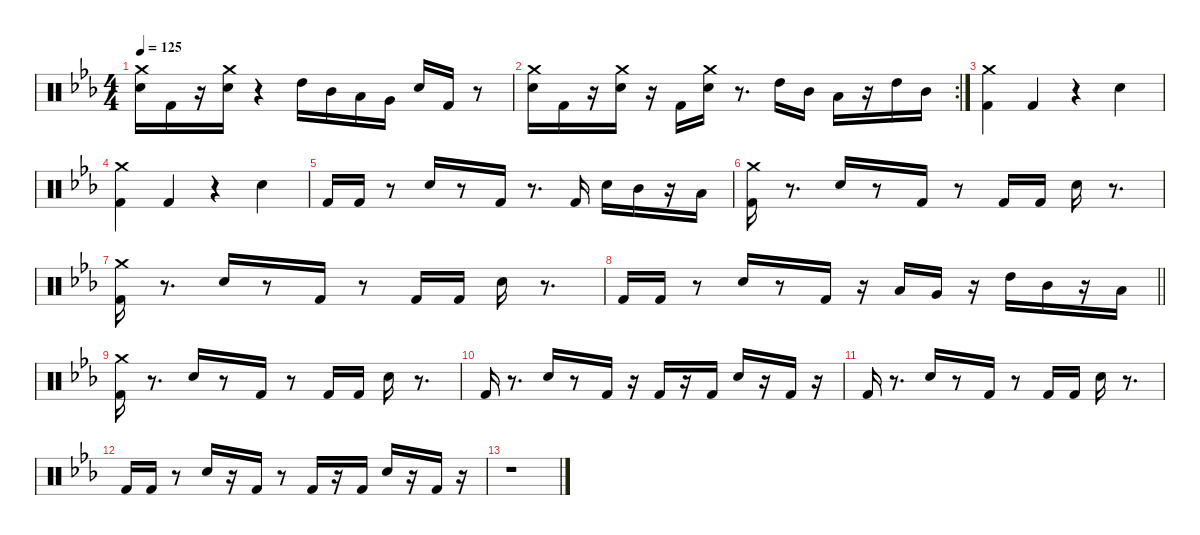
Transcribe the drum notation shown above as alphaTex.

\defaultSystemsLayout 4
\hideDynamics
\bracketExtendMode nobrackets
\singleTrackTrackNamePolicy hidden
\multiTrackTrackNamePolicy hidden
\firstSystemTrackNameMode fullname
\firstSystemTrackNameOrientation horizontal
\otherSystemsTrackNameOrientation horizontal
\track ("Batterie" "drm.") {instrument percussion}
\staff {score}
\articulation defaults
\ts (4 4)
\tempo 125
\clef neutral
\ks eb
("Crash medium (hit)"{acc forcenatural} "Snare (hit) 2"{acc forcenatural}).16{dy f beam Down} "Kick (hit) 2"{acc forcenatural}.16{beam Down} r.16{beam Down} ("Crash medium (hit)"{acc forcenatural} "Snare (hit) 2"{acc forcenatural}).16{beam Down} r.4{beam Down} "High Tom (hit)"{acc forcenatural}.16{beam Down} "Mid Tom (hit)"{acc forcenatural}.16{beam Down} "Low Tom (hit)"{acc forcenatural}.16{beam Down} "Very Low Tom (hit)"{acc forcenatural}.16{beam Down} "Snare (hit) 2"{acc forcenatural}.16{beam Up} "Kick (hit) 2"{acc forcenatural}.16{beam Up} r.8{beam Up} |
\rc 2
("Crash medium (hit)"{acc forcenatural} "Snare (hit) 2"{acc forcenatural}).16{beam Down} "Kick (hit) 2"{acc forcenatural}.16{beam Down} r.16{beam Down} ("Crash medium (hit)"{acc forcenatural} "Snare (hit) 2"{acc forcenatural}).16{beam Down} r.16{beam Down} "Kick (hit) 2"{acc forcenatural}.16{beam Down} ("Crash medium (hit)"{acc forcenatural} "Snare (hit) 2"{acc forcenatural}).16{beam Down} r.8{d beam Down} "High Tom (hit)"{acc forcenatural}.16{beam Down} "Mid Tom (hit)"{acc forcenatural}.16{beam Down} "Low Tom (hit)"{acc forcenatural}.16{beam Down} r.16{beam Down} "High Tom (hit)"{acc forcenatural}.16{beam Down} "Mid Tom (hit)"{acc forcenatural}.16{beam Down} |
("Crash medium (hit)"{acc forcenatural} "Kick (hit) 2"{acc forcenatural}).4{beam Down} "Kick (hit) 2"{acc forcenatural}.4{beam Up} r.4{beam Up} "Snare (hit) 2"{acc forcenatural}.4{beam Down} |
("Crash medium (hit)"{acc forcenatural} "Kick (hit) 2"{acc forcenatural}).4{beam Down} "Kick (hit) 2"{acc forcenatural}.4{beam Up} r.4{beam Up} "Snare (hit) 2"{acc forcenatural}.4{beam Down} |
"Kick (hit) 2"{acc forcenatural}.16{beam Up} "Kick (hit) 2"{acc forcenatural}.16{beam Up} r.8{beam Up} "Snare (hit) 2"{acc forcenatural}.16{beam Up} r.8{beam Up} "Kick (hit) 2"{acc forcenatural}.16{beam Up} r.8{d beam Up} "Kick (hit) 2"{acc forcenatural}.16{beam Up} "Snare (hit) 2"{acc forcenatural}.16{beam Down} "Mid Tom (hit)"{acc forcenatural}.16{beam Down} r.16{beam Down} "Low Tom (hit)"{acc forcenatural}.16{beam Down} |
("Crash medium (hit)"{acc forcenatural} "Kick (hit) 2"{acc forcenatural}).16{beam Down} r.8{d beam Down} "Snare (hit) 2"{acc forcenatural}.16{beam Up} r.8{beam Up} "Kick (hit) 2"{acc forcenatural}.16{beam Up} r.8{beam Up} "Kick (hit) 2"{acc forcenatural}.16{beam Up} "Kick (hit) 2"{acc forcenatural}.16{beam Up} "Snare (hit) 2"{acc forcenatural}.16{beam Down} r.8{d beam Down} |
("Crash medium (hit)"{acc forcenatural} "Kick (hit) 2"{acc forcenatural}).16{beam Down} r.8{d beam Down} "Snare (hit) 2"{acc forcenatural}.16{beam Up} r.8{beam Up} "Kick (hit) 2"{acc forcenatural}.16{beam Up} r.8{beam Up} "Kick (hit) 2"{acc forcenatural}.16{beam Up} "Kick (hit) 2"{acc forcenatural}.16{beam Up} "Snare (hit) 2"{acc forcenatural}.16{beam Down} r.8{d beam Down} |
\barLineRight lightlight "Kick (hit) 2"{acc forcenatural}.16{beam Up} "Kick (hit) 2"{acc forcenatural}.16{beam Up}
r.8{beam Up} "Snare (hit) 2"{acc forcenatural}.16{beam Up} r.8{beam Up} "Kick (hit) 2"{acc forcenatural}.16{beam Up} r.16{beam Up} "Low Tom (hit)"{acc forcenatural}.16{beam Up} "Very Low Tom (hit)"{acc forcenatural}.16{beam Up} r.16{beam Up} "High Tom (hit)"{acc forcenatural}.16{beam Down} "Mid Tom (hit)"{acc forcenatural}.16{beam Down} r.16{beam Down} "Low Tom (hit)"{acc forcenatural}.16{beam Down} |
("Crash medium (hit)"{acc forcenatural} "Kick (hit) 2"{acc forcenatural}).16{beam Down} r.8{d beam Down} "Snare (hit) 2"{acc forcenatural}.16{beam Up} r.8{beam Up} "Kick (hit) 2"{acc forcenatural}.16{beam Up} r.8{beam Up} "Kick (hit) 2"{acc forcenatural}.16{beam Up} "Kick (hit) 2"{acc forcenatural}.16{beam Up} "Snare (hit) 2"{acc forcenatural}.16{beam Down} r.8{d beam Down} |
"Kick (hit) 2"{acc forcenatural}.16{beam Up} r.8{d beam Up} "Snare (hit) 2"{acc forcenatural}.16{beam Up} r.8{beam Up} "Kick (hit) 2"{acc forcenatural}.16{beam Up} r.16{beam Up} "Kick (hit) 2"{acc forcenatural}.16{beam Up} r.16{beam Up} "Kick (hit) 2"{acc forcenatural}.16{beam Up} "Snare (hit) 2"{acc forcenatural}.16{beam Up} r.16{beam Up} "Kick (hit) 2"{acc forcenatural}.16{beam Up} r.16{beam Up} |
"Kick (hit) 2"{acc forcenatural}.16{beam Up} r.8{d beam Up} "Snare (hit) 2"{acc forcenatural}.16{beam Up} r.8{beam Up} "Kick (hit) 2"{acc forcenatural}.16{beam Up} r.8{beam Up} "Kick (hit) 2"{acc forcenatural}.16{beam Up} "Kick (hit) 2"{acc forcenatural}.16{beam Up} "Snare (hit) 2"{acc forcenatural}.16{beam Down} r.8{d beam Down} |
"Kick (hit) 2"{acc forcenatural}.16{beam Up} "Kick (hit) 2"{acc forcenatural}.16{beam Up} r.8{beam Up} "Snare (hit) 2"{acc forcenatural}.16{beam Up} r.16{beam Up} "Kick (hit) 2"{acc forcenatural}.16{beam Up} r.8{beam Up} "Kick (hit) 2"{acc forcenatural}.16{beam Up} r.16{beam Up} "Kick (hit) 2"{acc forcenatural}.16{beam Up} "Snare (hit) 2"{acc forcenatural}.16{beam Up} r.16{beam Up} "Kick (hit) 2"{acc forcenatural}.16{beam Up} r.16{beam Up} |
r.1{beam Down}
